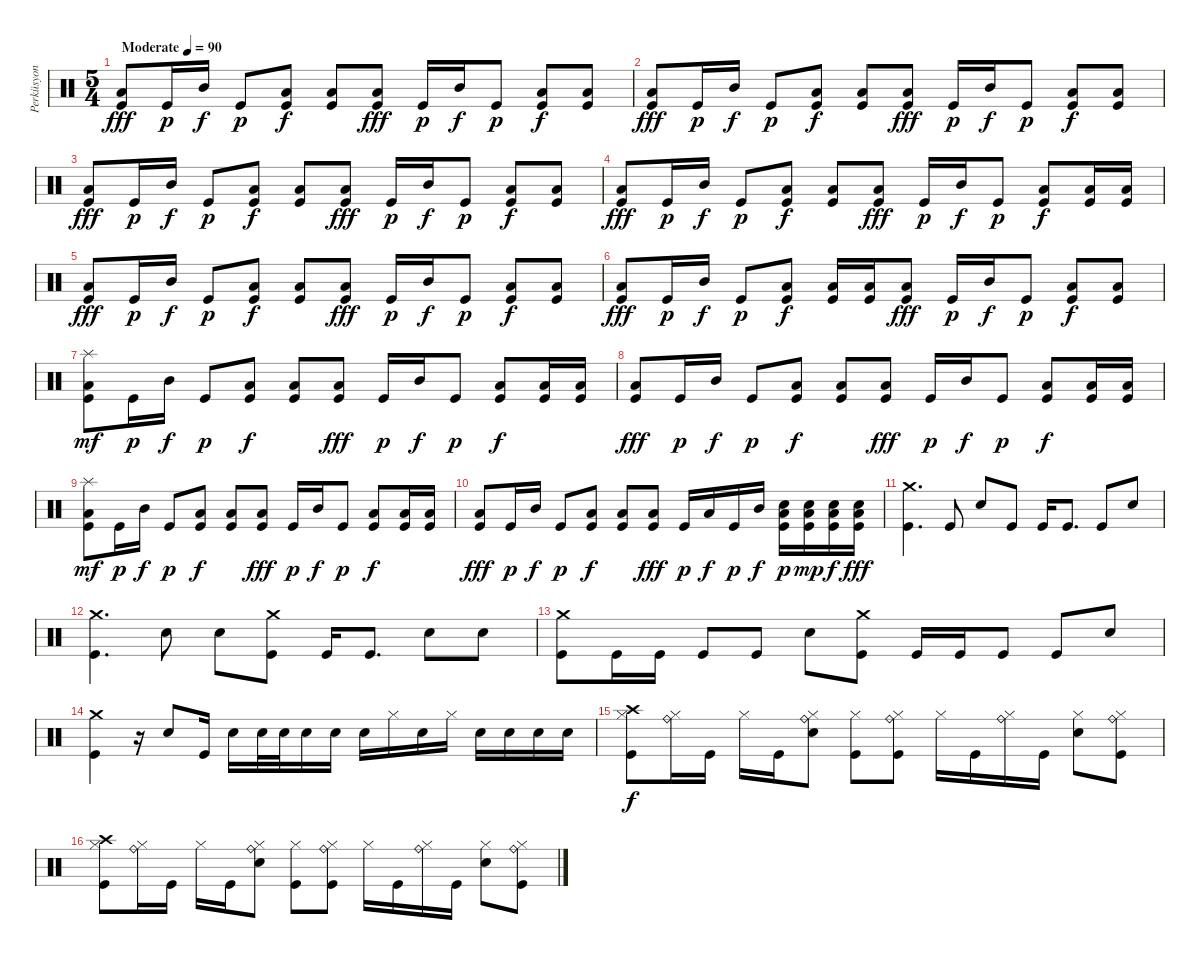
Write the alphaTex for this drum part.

\track ("Perküsyon" "Perküsyon") {instrument percussion}
\staff {score}
\articulation defaults
\ts (5 4)
\tempo (90 "Moderate")
\clef neutral
\ks c
("Low Floor Tom (hit)" "Kick (hit)").8{dy fff} "Kick (hit)".16{dy p} "Mid Tom (hit)".16{dy f} "Kick (hit)".8{dy p} ("Low Floor Tom (hit)" "Kick (hit)").8{dy f} ("Low Floor Tom (hit)" "Kick (hit)").8 ("Low Floor Tom (hit)" "Kick (hit)").8{dy fff} "Kick (hit)".16{dy p} "Mid Tom (hit)".16{dy f} "Kick (hit)".8{dy p} ("Low Floor Tom (hit)" "Kick (hit)").8{dy f} ("Low Floor Tom (hit)" "Kick (hit)").8 |
("Low Floor Tom (hit)" "Kick (hit)").8{dy fff} "Kick (hit)".16{dy p} "Mid Tom (hit)".16{dy f} "Kick (hit)".8{dy p} ("Low Floor Tom (hit)" "Kick (hit)").8{dy f} ("Low Floor Tom (hit)" "Kick (hit)").8 ("Low Floor Tom (hit)" "Kick (hit)").8{dy fff} "Kick (hit)".16{dy p} "Mid Tom (hit)".16{dy f} "Kick (hit)".8{dy p} ("Low Floor Tom (hit)" "Kick (hit)").8{dy f} ("Low Floor Tom (hit)" "Kick (hit)").8 |
("Low Floor Tom (hit)" "Kick (hit)").8{dy fff} "Kick (hit)".16{dy p} "Mid Tom (hit)".16{dy f} "Kick (hit)".8{dy p} ("Low Floor Tom (hit)" "Kick (hit)").8{dy f} ("Low Floor Tom (hit)" "Kick (hit)").8 ("Low Floor Tom (hit)" "Kick (hit)").8{dy fff} "Kick (hit)".16{dy p} "Mid Tom (hit)".16{dy f} "Kick (hit)".8{dy p} ("Low Floor Tom (hit)" "Kick (hit)").8{dy f} ("Low Floor Tom (hit)" "Kick (hit)").8 |
("Low Floor Tom (hit)" "Kick (hit)").8{dy fff} "Kick (hit)".16{dy p} "Mid Tom (hit)".16{dy f} "Kick (hit)".8{dy p} ("Low Floor Tom (hit)" "Kick (hit)").8{dy f} ("Low Floor Tom (hit)" "Kick (hit)").8 ("Low Floor Tom (hit)" "Kick (hit)").8{dy fff} "Kick (hit)".16{dy p} "Mid Tom (hit)".16{dy f} "Kick (hit)".8{dy p} ("Low Floor Tom (hit)" "Kick (hit)").8{dy f} ("Low Floor Tom (hit)" "Kick (hit)").16 ("Low Floor Tom (hit)" "Kick (hit)").16 |
("Low Floor Tom (hit)" "Kick (hit)").8{dy fff} "Kick (hit)".16{dy p} "Mid Tom (hit)".16{dy f} "Kick (hit)".8{dy p} ("Low Floor Tom (hit)" "Kick (hit)").8{dy f} ("Low Floor Tom (hit)" "Kick (hit)").8 ("Low Floor Tom (hit)" "Kick (hit)").8{dy fff} "Kick (hit)".16{dy p} "Mid Tom (hit)".16{dy f} "Kick (hit)".8{dy p} ("Low Floor Tom (hit)" "Kick (hit)").8{dy f} ("Low Floor Tom (hit)" "Kick (hit)").8 |
("Low Floor Tom (hit)" "Kick (hit)").8{dy fff} "Kick (hit)".16{dy p} "Mid Tom (hit)".16{dy f} "Kick (hit)".8{dy p} ("Low Floor Tom (hit)" "Kick (hit)").8{dy f} ("Low Floor Tom (hit)" "Kick (hit)").16 ("Low Floor Tom (hit)" "Kick (hit)").16 ("Low Floor Tom (hit)" "Kick (hit)").8{dy fff} "Kick (hit)".16{dy p} "Mid Tom (hit)".16{dy f} "Kick (hit)".8{dy p} ("Low Floor Tom (hit)" "Kick (hit)").8{dy f} ("Low Floor Tom (hit)" "Kick (hit)").8 |
("Low Floor Tom (hit)" "Splash (hit)" "Kick (hit)").8{dy mf} "Kick (hit)".16{dy p} "Mid Tom (hit)".16{dy f} "Kick (hit)".8{dy p} ("Low Floor Tom (hit)" "Kick (hit)").8{dy f} ("Low Floor Tom (hit)" "Kick (hit)").8 ("Low Floor Tom (hit)" "Kick (hit)").8{dy fff} "Kick (hit)".16{dy p} "Mid Tom (hit)".16{dy f} "Kick (hit)".8{dy p} ("Low Floor Tom (hit)" "Kick (hit)").8{dy f} ("Low Floor Tom (hit)" "Kick (hit)").16 ("Low Floor Tom (hit)" "Kick (hit)").16 |
("Low Floor Tom (hit)" "Kick (hit)").8{dy fff} "Kick (hit)".16{dy p} "Mid Tom (hit)".16{dy f} "Kick (hit)".8{dy p} ("Low Floor Tom (hit)" "Kick (hit)").8{dy f} ("Low Floor Tom (hit)" "Kick (hit)").8 ("Low Floor Tom (hit)" "Kick (hit)").8{dy fff} "Kick (hit)".16{dy p} "Mid Tom (hit)".16{dy f} "Kick (hit)".8{dy p} ("Low Floor Tom (hit)" "Kick (hit)").8{dy f} ("Low Floor Tom (hit)" "Kick (hit)").16 ("Low Floor Tom (hit)" "Kick (hit)").16 |
("Low Floor Tom (hit)" "Splash (hit)" "Kick (hit)").8{dy mf} "Kick (hit)".16{dy p} "Mid Tom (hit)".16{dy f} "Kick (hit)".8{dy p} ("Low Floor Tom (hit)" "Kick (hit)").8{dy f} ("Low Floor Tom (hit)" "Kick (hit)").8 ("Low Floor Tom (hit)" "Kick (hit)").8{dy fff} "Kick (hit)".16{dy p} "Mid Tom (hit)".16{dy f} "Kick (hit)".8{dy p} ("Low Floor Tom (hit)" "Kick (hit)").8{dy f} ("Low Floor Tom (hit)" "Kick (hit)").16 ("Low Floor Tom (hit)" "Kick (hit)").16 |
("Low Floor Tom (hit)" "Kick (hit)").8{dy fff} "Kick (hit)".16{dy p} "Mid Tom (hit)".16{dy f} "Kick (hit)".8{dy p} ("Low Floor Tom (hit)" "Kick (hit)").8{dy f} ("Low Floor Tom (hit)" "Kick (hit)").8 ("Low Floor Tom (hit)" "Kick (hit)").8{dy fff} "Kick (hit)".16{dy p} "Low Floor Tom (hit)".16{dy f} "Kick (hit)".16{dy p} "Mid Tom (hit)".16{dy f} ("Low Floor Tom (hit)" "Electric Snare (hit)" "Kick (hit)").16{dy p} ("Low Floor Tom (hit)" "Electric Snare (hit)" "Kick (hit)").16{dy mp} ("Low Floor Tom (hit)" "Electric Snare (hit)" "Kick (hit)").16{dy f} ("Low Floor Tom (hit)" "Electric Snare (hit)" "Kick (hit)").16{dy fff} |
("Crash medium (hit)" "Kick (hit)").4{d} "Kick (hit)".8 "Electric Snare (hit)".8 "Kick (hit)".8 "Kick (hit)".16 "Kick (hit)".8{d} "Kick (hit)".8 "Electric Snare (hit)".8 |
("Crash medium (hit)" "Kick (hit)").4{d} "Electric Snare (hit)".8 "Electric Snare (hit)".8 ("Crash medium (hit)" "Kick (hit)").8 "Kick (hit)".16 "Kick (hit)".8{d} "Electric Snare (hit)".8 "Electric Snare (hit)".8 |
("Crash medium (hit)" "Kick (hit)").8 "Kick (hit)".16 "Kick (hit)".16 "Kick (hit)".8 "Kick (hit)".8 "Electric Snare (hit)".8 ("Crash medium (hit)" "Kick (hit)").8 "Kick (hit)".16 "Kick (hit)".16 "Kick (hit)".8 "Kick (hit)".8 "Electric Snare (hit)".8 |
("Crash medium (hit)" "Kick (hit)").4 r.16 "Electric Snare (hit)".8 "Kick (hit)".16 "Electric Snare (hit)".16 "Electric Snare (hit)".32 "Electric Snare (hit)".32 "Electric Snare (hit)".16 "Electric Snare (hit)".16 "Electric Snare (hit)".16 "Hi-Hat (closed)".16 "Electric Snare (hit)".16 "Hi-Hat (closed)".16 "Electric Snare (hit)".16 "Electric Snare (hit)".16 "Electric Snare (hit)".16 "Electric Snare (hit)".16 |
("Hi-Hat (closed)" "Crash high (hit)" "Kick (hit)").8{dy f} ("Ride (bell)" "Hi-Hat (closed)").16 "Kick (hit)".16 "Hi-Hat (closed)".16 "Kick (hit)".16 ("Electric Snare (hit)" "Ride (bell)" "Hi-Hat (closed)").8 ("Hi-Hat (closed)" "Kick (hit)").8 ("Ride (bell)" "Hi-Hat (closed)" "Kick (hit)").8 "Hi-Hat (closed)".16 "Kick (hit)".16 ("Ride (bell)" "Hi-Hat (closed)").16 "Kick (hit)".16 ("Electric Snare (hit)" "Hi-Hat (closed)").8 ("Ride (bell)" "Hi-Hat (closed)" "Kick (hit)").8 |
("Hi-Hat (closed)" "Crash high (hit)" "Kick (hit)").8 ("Ride (bell)" "Hi-Hat (closed)").16 "Kick (hit)".16 "Hi-Hat (closed)".16 "Kick (hit)".16 ("Electric Snare (hit)" "Ride (bell)" "Hi-Hat (closed)").8 ("Hi-Hat (closed)" "Kick (hit)").8 ("Ride (bell)" "Hi-Hat (closed)" "Kick (hit)").8 "Hi-Hat (closed)".16 "Kick (hit)".16 ("Ride (bell)" "Hi-Hat (closed)").16 "Kick (hit)".16 ("Electric Snare (hit)" "Hi-Hat (closed)").8 ("Ride (bell)" "Hi-Hat (closed)" "Kick (hit)").8
